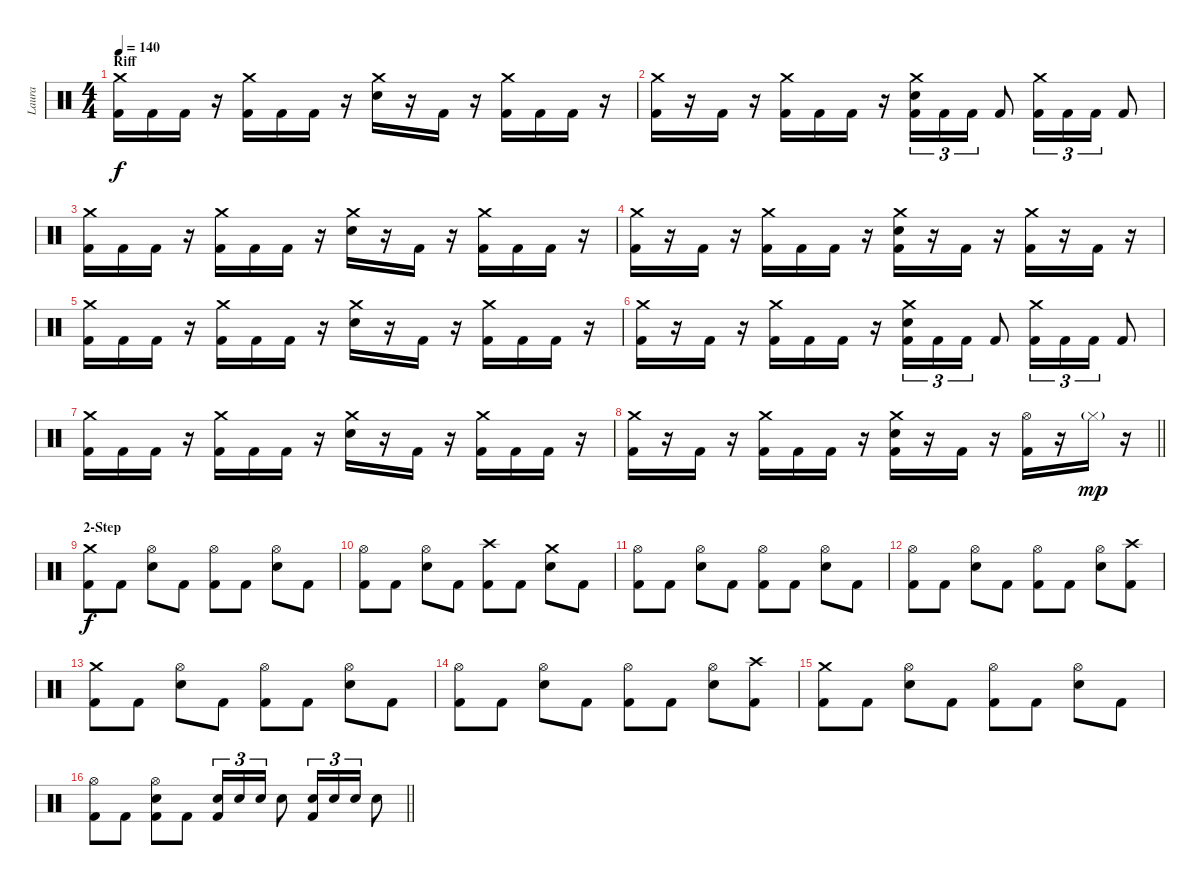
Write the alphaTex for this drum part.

\track ("Laura" "Laura") {instrument percussion}
\staff {score}
\articulation defaults
\ts (4 4)
\section ("" "Riff")
\tempo 140
\clef neutral
\ks c
("Crash medium (hit)" "Kick (hit) 2").16{dy f} "Kick (hit) 2".16 "Kick (hit) 2".16 r.16 ("Crash medium (hit)" "Kick (hit) 2").16 "Kick (hit) 2".16 "Kick (hit) 2".16 r.16 ("Crash medium (hit)" "Electric Snare (hit)").16 r.16 "Kick (hit) 2".16 r.16 ("Crash medium (hit)" "Kick (hit) 2").16 "Kick (hit) 2".16 "Kick (hit) 2".16 r.16 |
("Crash medium (hit)" "Kick (hit) 2").16 r.16 "Kick (hit) 2".16 r.16 ("Crash medium (hit)" "Kick (hit) 2").16 "Kick (hit) 2".16 "Kick (hit) 2".16 r.16 ("Crash medium (hit)" "Electric Snare (hit)" "Kick (hit) 2").16{tu (3 2)} "Kick (hit) 2".16{tu (3 2)} "Kick (hit) 2".16{tu (3 2)} "Kick (hit) 2".8 ("Crash medium (hit)" "Kick (hit) 2").16{tu (3 2)} "Kick (hit) 2".16{tu (3 2)} "Kick (hit) 2".16{tu (3 2)} "Kick (hit) 2".8 |
("Crash medium (hit)" "Kick (hit) 2").16 "Kick (hit) 2".16 "Kick (hit) 2".16 r.16 ("Crash medium (hit)" "Kick (hit) 2").16 "Kick (hit) 2".16 "Kick (hit) 2".16 r.16 ("Crash medium (hit)" "Electric Snare (hit)").16 r.16 "Kick (hit) 2".16 r.16 ("Crash medium (hit)" "Kick (hit) 2").16 "Kick (hit) 2".16 "Kick (hit) 2".16 r.16 |
("Crash medium (hit)" "Kick (hit) 2").16 r.16 "Kick (hit) 2".16 r.16 ("Crash medium (hit)" "Kick (hit) 2").16 "Kick (hit) 2".16 "Kick (hit) 2".16 r.16 ("Crash medium (hit)" "Electric Snare (hit)" "Kick (hit) 2").16 r.16 "Kick (hit) 2".16 r.16 ("Crash medium (hit)" "Kick (hit) 2").16 r.16 "Kick (hit) 2".16 r.16 |
("Crash medium (hit)" "Kick (hit) 2").16 "Kick (hit) 2".16 "Kick (hit) 2".16 r.16 ("Crash medium (hit)" "Kick (hit) 2").16 "Kick (hit) 2".16 "Kick (hit) 2".16 r.16 ("Crash medium (hit)" "Electric Snare (hit)").16 r.16 "Kick (hit) 2".16 r.16 ("Crash medium (hit)" "Kick (hit) 2").16 "Kick (hit) 2".16 "Kick (hit) 2".16 r.16 |
("Crash medium (hit)" "Kick (hit) 2").16 r.16 "Kick (hit) 2".16 r.16 ("Crash medium (hit)" "Kick (hit) 2").16 "Kick (hit) 2".16 "Kick (hit) 2".16 r.16 ("Crash medium (hit)" "Electric Snare (hit)" "Kick (hit) 2").16{tu (3 2)} "Kick (hit) 2".16{tu (3 2)} "Kick (hit) 2".16{tu (3 2)} "Kick (hit) 2".8 ("Crash medium (hit)" "Kick (hit) 2").16{tu (3 2)} "Kick (hit) 2".16{tu (3 2)} "Kick (hit) 2".16{tu (3 2)} "Kick (hit) 2".8 |
("Crash medium (hit)" "Kick (hit) 2").16 "Kick (hit) 2".16 "Kick (hit) 2".16 r.16 ("Crash medium (hit)" "Kick (hit) 2").16 "Kick (hit) 2".16 "Kick (hit) 2".16 r.16 ("Crash medium (hit)" "Electric Snare (hit)").16 r.16 "Kick (hit) 2".16 r.16 ("Crash medium (hit)" "Kick (hit) 2").16 "Kick (hit) 2".16 "Kick (hit) 2".16 r.16 |
\barLineRight lightlight
("Crash medium (hit)" "Kick (hit) 2").16 r.16 "Kick (hit) 2".16 r.16 ("Crash medium (hit)" "Kick (hit) 2").16 "Kick (hit) 2".16 "Kick (hit) 2".16 r.16 ("Crash medium (hit)" "Electric Snare (hit)" "Kick (hit) 2").16 r.16 "Kick (hit) 2".16 r.16 ("Hi-Hat (open)" "Kick (hit) 2").16 r.16 "Hi-Hat (closed)"{g}.16{dy mp} r.16 |
\section ("" "2-Step")
("Crash medium (hit)" "Kick (hit) 2").8{dy f} "Kick (hit) 2".8 ("Hi-Hat (open)" "Electric Snare (hit)").8 "Kick (hit) 2".8 ("Hi-Hat (open)" "Kick (hit) 2").8 "Kick (hit) 2".8 ("Hi-Hat (open)" "Electric Snare (hit)").8 "Kick (hit) 2".8 |
("Hi-Hat (open)" "Kick (hit) 2").8 "Kick (hit) 2".8 ("Hi-Hat (open)" "Electric Snare (hit)").8 "Kick (hit) 2".8 ("Crash high (hit)" "Kick (hit) 2").8 "Kick (hit) 2".8 ("Crash medium (hit)" "Electric Snare (hit)").8 "Kick (hit) 2".8 |
("Hi-Hat (open)" "Kick (hit) 2").8 "Kick (hit) 2".8 ("Hi-Hat (open)" "Electric Snare (hit)").8 "Kick (hit) 2".8 ("Hi-Hat (open)" "Kick (hit) 2").8 "Kick (hit) 2".8 ("Hi-Hat (open)" "Electric Snare (hit)").8 "Kick (hit) 2".8 |
("Hi-Hat (open)" "Kick (hit) 2").8 "Kick (hit) 2".8 ("Hi-Hat (open)" "Electric Snare (hit)").8 "Kick (hit) 2".8 ("Hi-Hat (open)" "Kick (hit) 2").8 "Kick (hit) 2".8 ("Hi-Hat (open)" "Electric Snare (hit)").8 ("Crash high (hit)" "Kick (hit) 2").8 |
("Crash medium (hit)" "Kick (hit) 2").8 "Kick (hit) 2".8 ("Hi-Hat (open)" "Electric Snare (hit)").8 "Kick (hit) 2".8 ("Hi-Hat (open)" "Kick (hit) 2").8 "Kick (hit) 2".8 ("Hi-Hat (open)" "Electric Snare (hit)").8 "Kick (hit) 2".8 |
("Hi-Hat (open)" "Kick (hit) 2").8 "Kick (hit) 2".8 ("Hi-Hat (open)" "Electric Snare (hit)").8 "Kick (hit) 2".8 ("Hi-Hat (open)" "Kick (hit) 2").8 "Kick (hit) 2".8 ("Hi-Hat (open)" "Electric Snare (hit)").8 ("Crash high (hit)" "Kick (hit) 2").8 |
("Crash medium (hit)" "Kick (hit) 2").8 "Kick (hit) 2".8 ("Hi-Hat (open)" "Electric Snare (hit)").8 "Kick (hit) 2".8 ("Hi-Hat (open)" "Kick (hit) 2").8 "Kick (hit) 2".8 ("Hi-Hat (open)" "Electric Snare (hit)").8 "Kick (hit) 2".8 |
\barLineRight lightlight
("Hi-Hat (open)" "Kick (hit) 2").8 "Kick (hit) 2".8 ("Hi-Hat (open)" "Electric Snare (hit)" "Kick (hit) 2").8 "Kick (hit) 2".8 ("Electric Snare (hit)" "Kick (hit) 2").16{tu (3 2)} "Electric Snare (hit)".16{tu (3 2)} "Electric Snare (hit)".16{tu (3 2)} "Electric Snare (hit)".8 ("Electric Snare (hit)" "Kick (hit) 2").16{tu (3 2)} "Electric Snare (hit)".16{tu (3 2)} "Electric Snare (hit)".16{tu (3 2)} "Electric Snare (hit)".8
